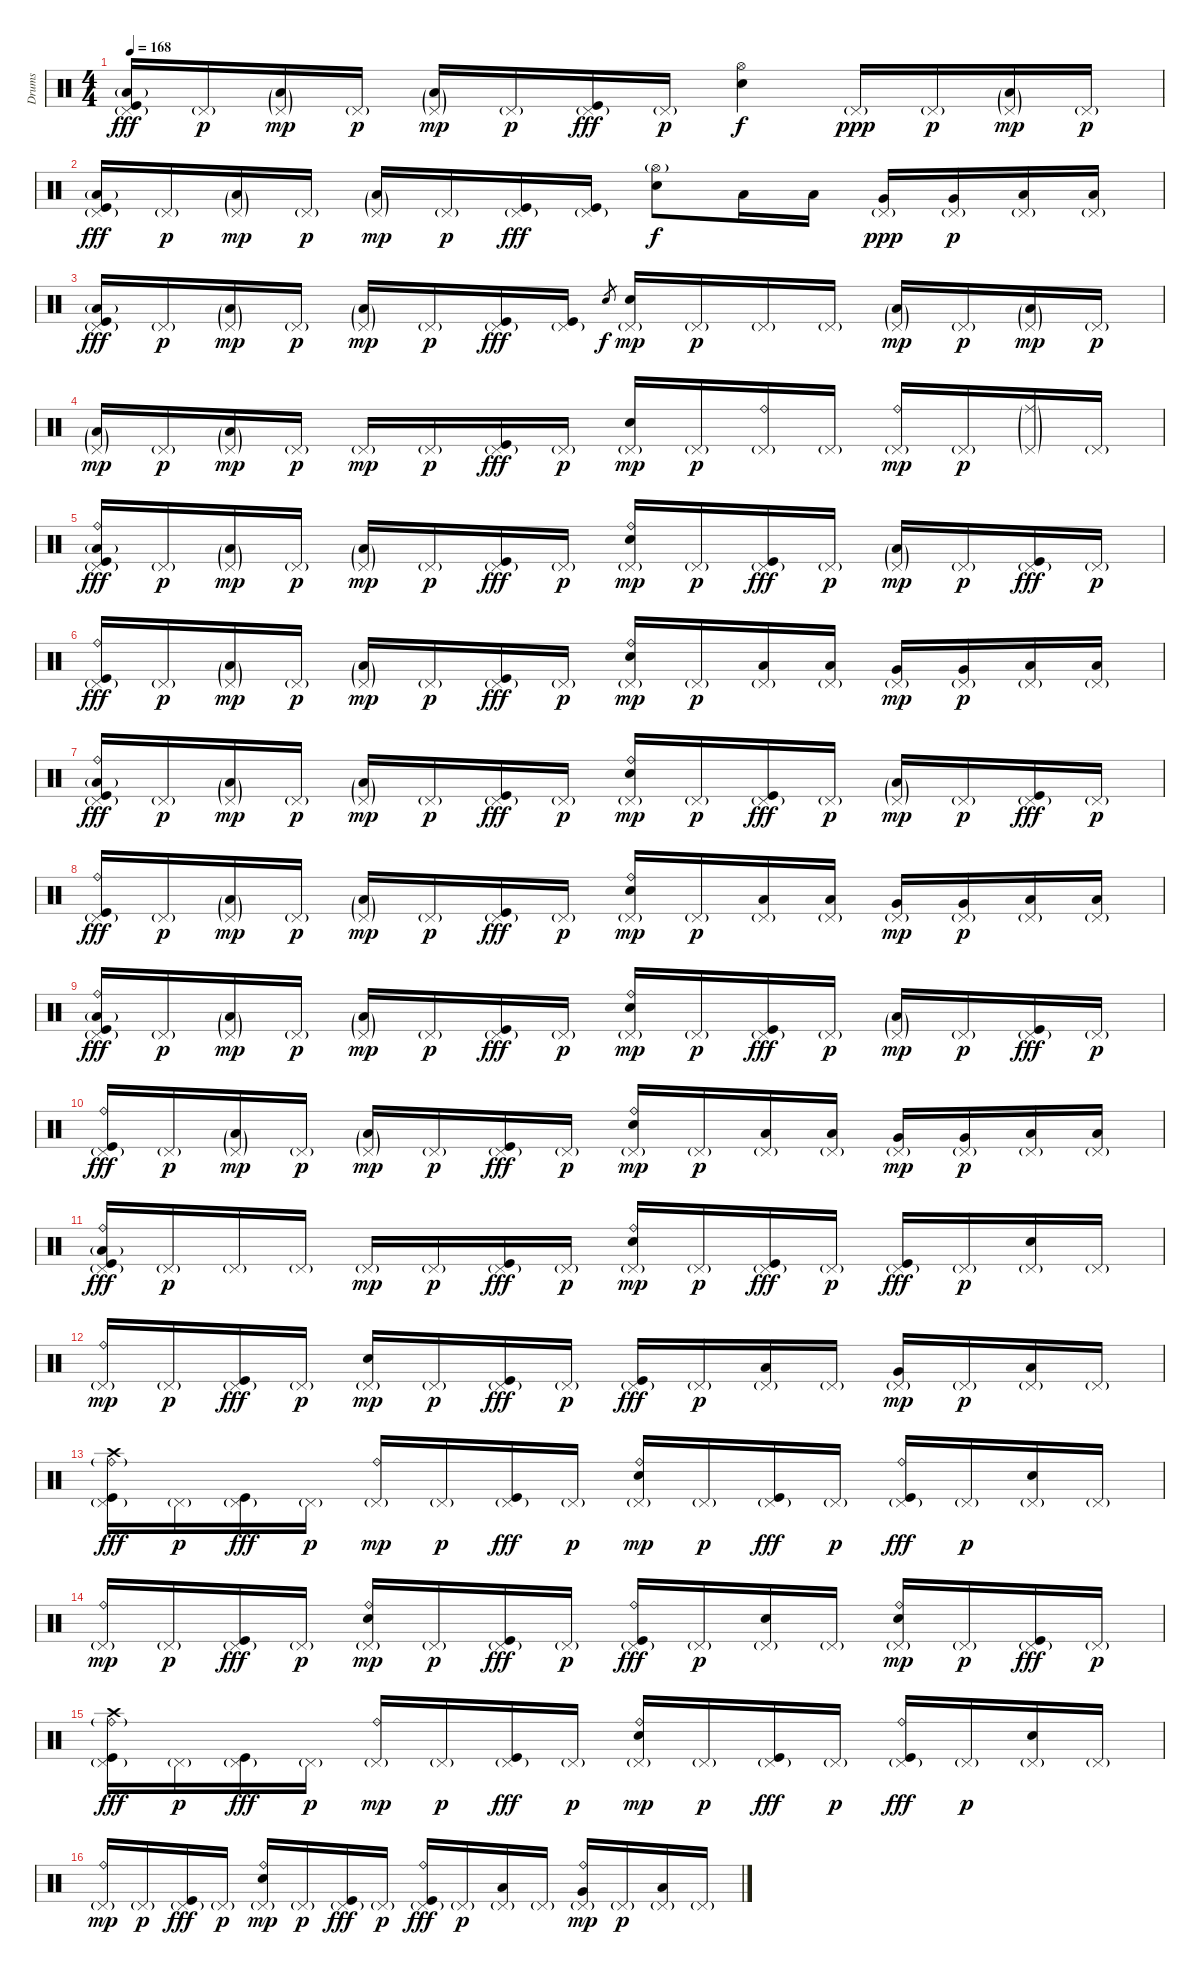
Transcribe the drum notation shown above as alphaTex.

\track ("Drums" "Drums") {instrument percussion}
\staff {score}
\articulation defaults
\ts (4 4)
\tempo 168
\clef neutral
\ks c
("Pedal Hi-Hat (hit)"{g} "Low Floor Tom (hit)"{g} "Kick (hit)").16{dy fff} "Pedal Hi-Hat (hit)"{g}.16{dy p} ("Pedal Hi-Hat (hit)"{g} "Low Floor Tom (hit)"{g}).16{dy mp} "Pedal Hi-Hat (hit)"{g}.16{dy p} ("Pedal Hi-Hat (hit)"{g} "Low Floor Tom (hit)"{g}).16{dy mp} "Pedal Hi-Hat (hit)"{g}.16{dy p} ("Pedal Hi-Hat (hit)"{g} "Kick (hit)").16{dy fff} "Pedal Hi-Hat (hit)"{g}.16{dy p} ("Hi-Hat (open)" "Snare (hit) 2").4{dy f} "Pedal Hi-Hat (hit)"{g}.16{dy ppp} "Pedal Hi-Hat (hit)"{g}.16{dy p} ("Pedal Hi-Hat (hit)"{g} "Low Floor Tom (hit)"{g}).16{dy mp} "Pedal Hi-Hat (hit)"{g}.16{dy p} |
("Pedal Hi-Hat (hit)"{g} "Low Floor Tom (hit)"{g} "Kick (hit)").16{dy fff} "Pedal Hi-Hat (hit)"{g}.16{dy p} ("Pedal Hi-Hat (hit)"{g} "Low Floor Tom (hit)"{g}).16{dy mp} "Pedal Hi-Hat (hit)"{g}.16{dy p} ("Pedal Hi-Hat (hit)"{g} "Low Floor Tom (hit)"{g}).16{dy mp} "Pedal Hi-Hat (hit)"{g}.16{dy p} ("Pedal Hi-Hat (hit)"{g} "Kick (hit)").16{dy fff} ("Pedal Hi-Hat (hit)"{g} "Kick (hit)").16 ("Hi-Hat (open)"{g} "Snare (hit) 2").8{dy f} "Low Tom (hit)".16 "Low Tom (hit)".16 ("Pedal Hi-Hat (hit)"{g} "Very Low Tom (hit)").16{dy ppp} ("Pedal Hi-Hat (hit)"{g} "Very Low Tom (hit)").16{dy p} ("Pedal Hi-Hat (hit)"{g} "Low Floor Tom (hit)").16 ("Pedal Hi-Hat (hit)"{g} "Low Floor Tom (hit)").16 |
("Pedal Hi-Hat (hit)"{g} "Low Floor Tom (hit)"{g} "Kick (hit)").16{dy fff} "Pedal Hi-Hat (hit)"{g}.16{dy p} ("Pedal Hi-Hat (hit)"{g} "Low Floor Tom (hit)"{g}).16{dy mp} "Pedal Hi-Hat (hit)"{g}.16{dy p} ("Pedal Hi-Hat (hit)"{g} "Low Floor Tom (hit)"{g}).16{dy mp} "Pedal Hi-Hat (hit)"{g}.16{dy p} ("Pedal Hi-Hat (hit)"{g} "Kick (hit)").16{dy fff} ("Pedal Hi-Hat (hit)"{g} "Kick (hit)").16 "Snare (hit) 2".8{gr dy f} ("Pedal Hi-Hat (hit)"{g} "Snare (hit) 2").16{dy mp} "Pedal Hi-Hat (hit)"{g}.16{dy p} "Pedal Hi-Hat (hit)"{g}.16 "Pedal Hi-Hat (hit)"{g}.16 ("Pedal Hi-Hat (hit)"{g} "Low Floor Tom (hit)"{g}).16{dy mp} "Pedal Hi-Hat (hit)"{g}.16{dy p} ("Pedal Hi-Hat (hit)"{g} "Low Floor Tom (hit)"{g}).16{dy mp} "Pedal Hi-Hat (hit)"{g}.16{dy p} |
("Pedal Hi-Hat (hit)"{g} "Low Floor Tom (hit)"{g}).16{dy mp} "Pedal Hi-Hat (hit)"{g}.16{dy p} ("Pedal Hi-Hat (hit)"{g} "Low Floor Tom (hit)"{g}).16{dy mp} "Pedal Hi-Hat (hit)"{g}.16{dy p} "Pedal Hi-Hat (hit)"{g}.16{dy mp} "Pedal Hi-Hat (hit)"{g}.16{dy p} ("Pedal Hi-Hat (hit)"{g} "Kick (hit)").16{dy fff} "Pedal Hi-Hat (hit)"{g}.16{dy p} ("Pedal Hi-Hat (hit)"{g} "Snare (hit) 2").16{dy mp} "Pedal Hi-Hat (hit)"{g}.16{dy p} ("Ride (bell)" "Pedal Hi-Hat (hit)"{g}).16 "Pedal Hi-Hat (hit)"{g}.16 ("Ride (bell)" "Pedal Hi-Hat (hit)"{g}).16{dy mp} "Pedal Hi-Hat (hit)"{g}.16{dy p} ("Ride (middle)"{g} "Pedal Hi-Hat (hit)"{g}).16 "Pedal Hi-Hat (hit)"{g}.16 |
("Ride (bell)" "Pedal Hi-Hat (hit)"{g} "Low Floor Tom (hit)"{g} "Kick (hit)").16{dy fff} "Pedal Hi-Hat (hit)"{g}.16{dy p} ("Pedal Hi-Hat (hit)"{g} "Low Floor Tom (hit)"{g}).16{dy mp} "Pedal Hi-Hat (hit)"{g}.16{dy p} ("Pedal Hi-Hat (hit)"{g} "Low Floor Tom (hit)"{g}).16{dy mp} "Pedal Hi-Hat (hit)"{g}.16{dy p} ("Pedal Hi-Hat (hit)"{g} "Kick (hit)").16{dy fff} "Pedal Hi-Hat (hit)"{g}.16{dy p} ("Ride (bell)" "Pedal Hi-Hat (hit)"{g} "Snare (hit) 2").16{dy mp} "Pedal Hi-Hat (hit)"{g}.16{dy p} ("Pedal Hi-Hat (hit)"{g} "Kick (hit)").16{dy fff} "Pedal Hi-Hat (hit)"{g}.16{dy p} ("Pedal Hi-Hat (hit)"{g} "Low Floor Tom (hit)"{g}).16{dy mp} "Pedal Hi-Hat (hit)"{g}.16{dy p} ("Pedal Hi-Hat (hit)"{g} "Kick (hit)").16{dy fff} "Pedal Hi-Hat (hit)"{g}.16{dy p} |
("Ride (bell)" "Pedal Hi-Hat (hit)"{g} "Kick (hit)").16{dy fff} "Pedal Hi-Hat (hit)"{g}.16{dy p} ("Pedal Hi-Hat (hit)"{g} "Low Floor Tom (hit)"{g}).16{dy mp} "Pedal Hi-Hat (hit)"{g}.16{dy p} ("Pedal Hi-Hat (hit)"{g} "Low Floor Tom (hit)"{g}).16{dy mp} "Pedal Hi-Hat (hit)"{g}.16{dy p} ("Pedal Hi-Hat (hit)"{g} "Kick (hit)").16{dy fff} "Pedal Hi-Hat (hit)"{g}.16{dy p} ("Ride (bell)" "Pedal Hi-Hat (hit)"{g} "Snare (hit) 2").16{dy mp} "Pedal Hi-Hat (hit)"{g}.16{dy p} ("Pedal Hi-Hat (hit)"{g} "Low Tom (hit)").16 ("Pedal Hi-Hat (hit)"{g} "Low Tom (hit)").16 ("Pedal Hi-Hat (hit)"{g} "Very Low Tom (hit)").16{dy mp} ("Pedal Hi-Hat (hit)"{g} "Very Low Tom (hit)").16{dy p} ("Pedal Hi-Hat (hit)"{g} "Low Floor Tom (hit)").16 ("Pedal Hi-Hat (hit)"{g} "Low Floor Tom (hit)").16 |
("Ride (bell)" "Pedal Hi-Hat (hit)"{g} "Low Floor Tom (hit)"{g} "Kick (hit)").16{dy fff} "Pedal Hi-Hat (hit)"{g}.16{dy p} ("Pedal Hi-Hat (hit)"{g} "Low Floor Tom (hit)"{g}).16{dy mp} "Pedal Hi-Hat (hit)"{g}.16{dy p} ("Pedal Hi-Hat (hit)"{g} "Low Floor Tom (hit)"{g}).16{dy mp} "Pedal Hi-Hat (hit)"{g}.16{dy p} ("Pedal Hi-Hat (hit)"{g} "Kick (hit)").16{dy fff} "Pedal Hi-Hat (hit)"{g}.16{dy p} ("Ride (bell)" "Pedal Hi-Hat (hit)"{g} "Snare (hit) 2").16{dy mp} "Pedal Hi-Hat (hit)"{g}.16{dy p} ("Pedal Hi-Hat (hit)"{g} "Kick (hit)").16{dy fff} "Pedal Hi-Hat (hit)"{g}.16{dy p} ("Pedal Hi-Hat (hit)"{g} "Low Floor Tom (hit)"{g}).16{dy mp} "Pedal Hi-Hat (hit)"{g}.16{dy p} ("Pedal Hi-Hat (hit)"{g} "Kick (hit)").16{dy fff} "Pedal Hi-Hat (hit)"{g}.16{dy p} |
("Ride (bell)" "Pedal Hi-Hat (hit)"{g} "Kick (hit)").16{dy fff} "Pedal Hi-Hat (hit)"{g}.16{dy p} ("Pedal Hi-Hat (hit)"{g} "Low Floor Tom (hit)"{g}).16{dy mp} "Pedal Hi-Hat (hit)"{g}.16{dy p} ("Pedal Hi-Hat (hit)"{g} "Low Floor Tom (hit)"{g}).16{dy mp} "Pedal Hi-Hat (hit)"{g}.16{dy p} ("Pedal Hi-Hat (hit)"{g} "Kick (hit)").16{dy fff} "Pedal Hi-Hat (hit)"{g}.16{dy p} ("Ride (bell)" "Pedal Hi-Hat (hit)"{g} "Snare (hit) 2").16{dy mp} "Pedal Hi-Hat (hit)"{g}.16{dy p} ("Pedal Hi-Hat (hit)"{g} "Low Tom (hit)").16 ("Pedal Hi-Hat (hit)"{g} "Low Tom (hit)").16 ("Pedal Hi-Hat (hit)"{g} "Very Low Tom (hit)").16{dy mp} ("Pedal Hi-Hat (hit)"{g} "Very Low Tom (hit)").16{dy p} ("Pedal Hi-Hat (hit)"{g} "Low Floor Tom (hit)").16 ("Pedal Hi-Hat (hit)"{g} "Low Floor Tom (hit)").16 |
("Ride (bell)" "Pedal Hi-Hat (hit)"{g} "Low Floor Tom (hit)"{g} "Kick (hit)").16{dy fff} "Pedal Hi-Hat (hit)"{g}.16{dy p} ("Pedal Hi-Hat (hit)"{g} "Low Floor Tom (hit)"{g}).16{dy mp} "Pedal Hi-Hat (hit)"{g}.16{dy p} ("Pedal Hi-Hat (hit)"{g} "Low Floor Tom (hit)"{g}).16{dy mp} "Pedal Hi-Hat (hit)"{g}.16{dy p} ("Pedal Hi-Hat (hit)"{g} "Kick (hit)").16{dy fff} "Pedal Hi-Hat (hit)"{g}.16{dy p} ("Ride (bell)" "Pedal Hi-Hat (hit)"{g} "Snare (hit) 2").16{dy mp} "Pedal Hi-Hat (hit)"{g}.16{dy p} ("Pedal Hi-Hat (hit)"{g} "Kick (hit)").16{dy fff} "Pedal Hi-Hat (hit)"{g}.16{dy p} ("Pedal Hi-Hat (hit)"{g} "Low Floor Tom (hit)"{g}).16{dy mp} "Pedal Hi-Hat (hit)"{g}.16{dy p} ("Pedal Hi-Hat (hit)"{g} "Kick (hit)").16{dy fff} "Pedal Hi-Hat (hit)"{g}.16{dy p} |
("Ride (bell)" "Pedal Hi-Hat (hit)"{g} "Kick (hit)").16{dy fff} "Pedal Hi-Hat (hit)"{g}.16{dy p} ("Pedal Hi-Hat (hit)"{g} "Low Floor Tom (hit)"{g}).16{dy mp} "Pedal Hi-Hat (hit)"{g}.16{dy p} ("Pedal Hi-Hat (hit)"{g} "Low Floor Tom (hit)"{g}).16{dy mp} "Pedal Hi-Hat (hit)"{g}.16{dy p} ("Pedal Hi-Hat (hit)"{g} "Kick (hit)").16{dy fff} "Pedal Hi-Hat (hit)"{g}.16{dy p} ("Ride (bell)" "Pedal Hi-Hat (hit)"{g} "Snare (hit) 2").16{dy mp} "Pedal Hi-Hat (hit)"{g}.16{dy p} ("Pedal Hi-Hat (hit)"{g} "Low Tom (hit)").16 ("Pedal Hi-Hat (hit)"{g} "Low Tom (hit)").16 ("Pedal Hi-Hat (hit)"{g} "Very Low Tom (hit)").16{dy mp} ("Pedal Hi-Hat (hit)"{g} "Very Low Tom (hit)").16{dy p} ("Pedal Hi-Hat (hit)"{g} "Low Floor Tom (hit)").16 ("Pedal Hi-Hat (hit)"{g} "Low Floor Tom (hit)").16 |
("Ride (bell)" "Pedal Hi-Hat (hit)"{g} "Low Floor Tom (hit)"{g} "Kick (hit)").16{dy fff} "Pedal Hi-Hat (hit)"{g}.16{dy p} "Pedal Hi-Hat (hit)"{g}.16 "Pedal Hi-Hat (hit)"{g}.16 "Pedal Hi-Hat (hit)"{g}.16{dy mp} "Pedal Hi-Hat (hit)"{g}.16{dy p} ("Pedal Hi-Hat (hit)"{g} "Kick (hit)").16{dy fff} "Pedal Hi-Hat (hit)"{g}.16{dy p} ("Ride (bell)" "Pedal Hi-Hat (hit)"{g} "Snare (hit) 2").16{dy mp} "Pedal Hi-Hat (hit)"{g}.16{dy p} ("Pedal Hi-Hat (hit)"{g} "Kick (hit)").16{dy fff} "Pedal Hi-Hat (hit)"{g}.16{dy p} ("Pedal Hi-Hat (hit)"{g} "Kick (hit)").16{dy fff} "Pedal Hi-Hat (hit)"{g}.16{dy p} ("Pedal Hi-Hat (hit)"{g} "Snare (hit) 2").16 "Pedal Hi-Hat (hit)"{g}.16 |
("Ride (bell)" "Pedal Hi-Hat (hit)"{g}).16{dy mp} "Pedal Hi-Hat (hit)"{g}.16{dy p} ("Pedal Hi-Hat (hit)"{g} "Kick (hit)").16{dy fff} "Pedal Hi-Hat (hit)"{g}.16{dy p} ("Pedal Hi-Hat (hit)"{g} "Snare (hit) 2").16{dy mp} "Pedal Hi-Hat (hit)"{g}.16{dy p} ("Pedal Hi-Hat (hit)"{g} "Kick (hit)").16{dy fff} "Pedal Hi-Hat (hit)"{g}.16{dy p} ("Pedal Hi-Hat (hit)"{g} "Kick (hit)").16{dy fff} "Pedal Hi-Hat (hit)"{g}.16{dy p} ("Pedal Hi-Hat (hit)"{g} "Low Tom (hit)").16 "Pedal Hi-Hat (hit)"{g}.16 ("Pedal Hi-Hat (hit)"{g} "Very Low Tom (hit)").16{dy mp} "Pedal Hi-Hat (hit)"{g}.16{dy p} ("Pedal Hi-Hat (hit)"{g} "Low Floor Tom (hit)").16 "Pedal Hi-Hat (hit)"{g}.16 |
("Ride (bell)"{g} "Crash high (hit)" "Pedal Hi-Hat (hit)"{g} "Kick (hit)").16{dy fff} "Pedal Hi-Hat (hit)"{g}.16{dy p} ("Pedal Hi-Hat (hit)"{g} "Kick (hit)").16{dy fff} "Pedal Hi-Hat (hit)"{g}.16{dy p} ("Ride (bell)" "Pedal Hi-Hat (hit)"{g}).16{dy mp} "Pedal Hi-Hat (hit)"{g}.16{dy p} ("Pedal Hi-Hat (hit)"{g} "Kick (hit)").16{dy fff} "Pedal Hi-Hat (hit)"{g}.16{dy p} ("Ride (bell)" "Pedal Hi-Hat (hit)"{g} "Snare (hit) 2").16{dy mp} "Pedal Hi-Hat (hit)"{g}.16{dy p} ("Pedal Hi-Hat (hit)"{g} "Kick (hit)").16{dy fff} "Pedal Hi-Hat (hit)"{g}.16{dy p} ("Ride (bell)" "Pedal Hi-Hat (hit)"{g} "Kick (hit)").16{dy fff} "Pedal Hi-Hat (hit)"{g}.16{dy p} ("Pedal Hi-Hat (hit)"{g} "Snare (hit) 2").16 "Pedal Hi-Hat (hit)"{g}.16 |
("Ride (bell)" "Pedal Hi-Hat (hit)"{g}).16{dy mp} "Pedal Hi-Hat (hit)"{g}.16{dy p} ("Pedal Hi-Hat (hit)"{g} "Kick (hit)").16{dy fff} "Pedal Hi-Hat (hit)"{g}.16{dy p} ("Ride (bell)" "Pedal Hi-Hat (hit)"{g} "Snare (hit) 2").16{dy mp} "Pedal Hi-Hat (hit)"{g}.16{dy p} ("Pedal Hi-Hat (hit)"{g} "Kick (hit)").16{dy fff} "Pedal Hi-Hat (hit)"{g}.16{dy p} ("Ride (bell)" "Pedal Hi-Hat (hit)"{g} "Kick (hit)").16{dy fff} "Pedal Hi-Hat (hit)"{g}.16{dy p} ("Pedal Hi-Hat (hit)"{g} "Snare (hit) 2").16 "Pedal Hi-Hat (hit)"{g}.16 ("Ride (bell)" "Pedal Hi-Hat (hit)"{g} "Snare (hit) 2").16{dy mp} "Pedal Hi-Hat (hit)"{g}.16{dy p} ("Pedal Hi-Hat (hit)"{g} "Kick (hit)").16{dy fff} "Pedal Hi-Hat (hit)"{g}.16{dy p} |
("Ride (bell)"{g} "Crash high (hit)" "Pedal Hi-Hat (hit)"{g} "Kick (hit)").16{dy fff} "Pedal Hi-Hat (hit)"{g}.16{dy p} ("Pedal Hi-Hat (hit)"{g} "Kick (hit)").16{dy fff} "Pedal Hi-Hat (hit)"{g}.16{dy p} ("Ride (bell)" "Pedal Hi-Hat (hit)"{g}).16{dy mp} "Pedal Hi-Hat (hit)"{g}.16{dy p} ("Pedal Hi-Hat (hit)"{g} "Kick (hit)").16{dy fff} "Pedal Hi-Hat (hit)"{g}.16{dy p} ("Ride (bell)" "Pedal Hi-Hat (hit)"{g} "Snare (hit) 2").16{dy mp} "Pedal Hi-Hat (hit)"{g}.16{dy p} ("Pedal Hi-Hat (hit)"{g} "Kick (hit)").16{dy fff} "Pedal Hi-Hat (hit)"{g}.16{dy p} ("Ride (bell)" "Pedal Hi-Hat (hit)"{g} "Kick (hit)").16{dy fff} "Pedal Hi-Hat (hit)"{g}.16{dy p} ("Pedal Hi-Hat (hit)"{g} "Snare (hit) 2").16 "Pedal Hi-Hat (hit)"{g}.16 |
("Ride (bell)" "Pedal Hi-Hat (hit)"{g}).16{dy mp} "Pedal Hi-Hat (hit)"{g}.16{dy p} ("Pedal Hi-Hat (hit)"{g} "Kick (hit)").16{dy fff} "Pedal Hi-Hat (hit)"{g}.16{dy p} ("Ride (bell)" "Pedal Hi-Hat (hit)"{g} "Snare (hit) 2").16{dy mp} "Pedal Hi-Hat (hit)"{g}.16{dy p} ("Pedal Hi-Hat (hit)"{g} "Kick (hit)").16{dy fff} "Pedal Hi-Hat (hit)"{g}.16{dy p} ("Ride (bell)" "Pedal Hi-Hat (hit)"{g} "Kick (hit)").16{dy fff} "Pedal Hi-Hat (hit)"{g}.16{dy p} ("Pedal Hi-Hat (hit)"{g} "Low Tom (hit)").16 "Pedal Hi-Hat (hit)"{g}.16 ("Ride (bell)" "Pedal Hi-Hat (hit)"{g} "Very Low Tom (hit)").16{dy mp} "Pedal Hi-Hat (hit)"{g}.16{dy p} ("Pedal Hi-Hat (hit)"{g} "Low Floor Tom (hit)").16 "Pedal Hi-Hat (hit)"{g}.16
